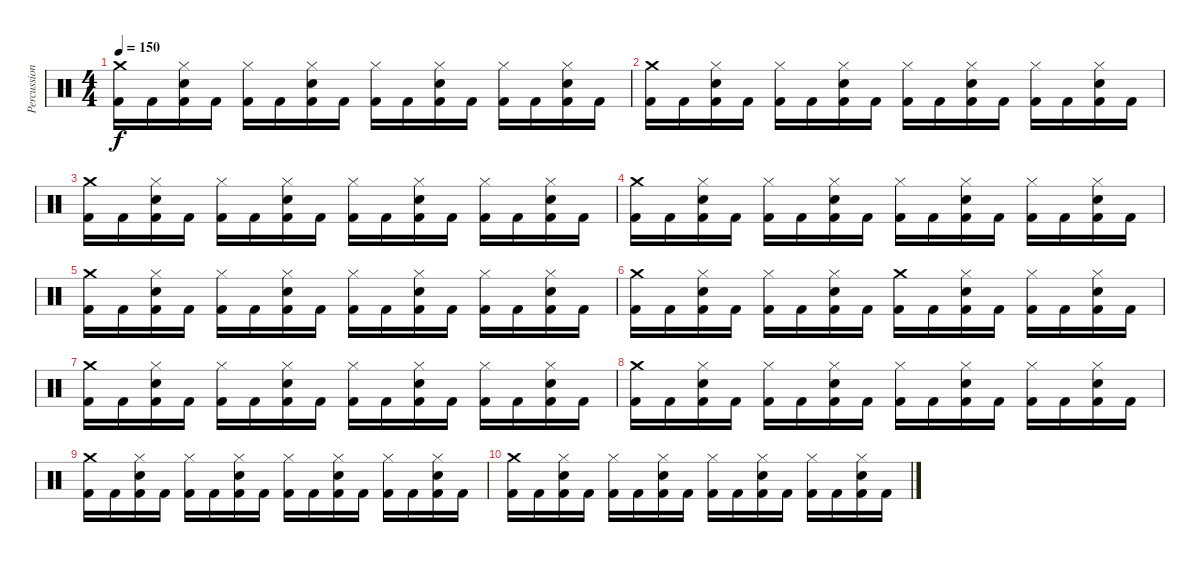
\track ("Percussioni" "Percussion") {instrument percussion}
\staff {score}
\articulation defaults
\ts (4 4)
\tempo 150
\clef neutral
\ks c
("Crash medium (hit)" "Kick (hit) 2").16{dy f} "Kick (hit) 2".16 ("Hi-Hat (closed)" "Electric Snare (hit)" "Kick (hit) 2").16 "Kick (hit) 2".16 ("Hi-Hat (closed)" "Kick (hit) 2").16 "Kick (hit) 2".16 ("Hi-Hat (closed)" "Electric Snare (hit)" "Kick (hit) 2").16 "Kick (hit) 2".16 ("Hi-Hat (closed)" "Kick (hit) 2").16 "Kick (hit) 2".16 ("Hi-Hat (closed)" "Electric Snare (hit)" "Kick (hit) 2").16 "Kick (hit) 2".16 ("Hi-Hat (closed)" "Kick (hit) 2").16 "Kick (hit) 2".16 ("Hi-Hat (closed)" "Electric Snare (hit)" "Kick (hit) 2").16 "Kick (hit) 2".16 |
("Crash medium (hit)" "Kick (hit) 2").16 "Kick (hit) 2".16 ("Hi-Hat (closed)" "Electric Snare (hit)" "Kick (hit) 2").16 "Kick (hit) 2".16 ("Hi-Hat (closed)" "Kick (hit) 2").16 "Kick (hit) 2".16 ("Hi-Hat (closed)" "Electric Snare (hit)" "Kick (hit) 2").16 "Kick (hit) 2".16 ("Hi-Hat (closed)" "Kick (hit) 2").16 "Kick (hit) 2".16 ("Hi-Hat (closed)" "Electric Snare (hit)" "Kick (hit) 2").16 "Kick (hit) 2".16 ("Hi-Hat (closed)" "Kick (hit) 2").16 "Kick (hit) 2".16 ("Hi-Hat (closed)" "Electric Snare (hit)" "Kick (hit) 2").16 "Kick (hit) 2".16 |
("Crash medium (hit)" "Kick (hit) 2").16{volume 16} "Kick (hit) 2".16{volume 16} ("Hi-Hat (closed)" "Electric Snare (hit)" "Kick (hit) 2").16{volume 16} "Kick (hit) 2".16{volume 16} ("Hi-Hat (closed)" "Kick (hit) 2").16{volume 15} "Kick (hit) 2".16{volume 15} ("Hi-Hat (closed)" "Electric Snare (hit)" "Kick (hit) 2").16{volume 15} "Kick (hit) 2".16{volume 15} ("Hi-Hat (closed)" "Kick (hit) 2").16{volume 15} "Kick (hit) 2".16{volume 15} ("Hi-Hat (closed)" "Electric Snare (hit)" "Kick (hit) 2").16{volume 14} "Kick (hit) 2".16{volume 14} ("Hi-Hat (closed)" "Kick (hit) 2").16{volume 14} "Kick (hit) 2".16{volume 14} ("Hi-Hat (closed)" "Electric Snare (hit)" "Kick (hit) 2").16{volume 14} "Kick (hit) 2".16{volume 14} |
("Crash medium (hit)" "Kick (hit) 2").16{volume 14} "Kick (hit) 2".16{volume 14} ("Hi-Hat (closed)" "Electric Snare (hit)" "Kick (hit) 2").16{volume 13} "Kick (hit) 2".16{volume 13} ("Hi-Hat (closed)" "Kick (hit) 2").16{volume 13} "Kick (hit) 2".16{volume 13} ("Hi-Hat (closed)" "Electric Snare (hit)" "Kick (hit) 2").16{volume 13} "Kick (hit) 2".16{volume 13} ("Hi-Hat (closed)" "Kick (hit) 2").16{volume 12} "Kick (hit) 2".16{volume 12} ("Hi-Hat (closed)" "Electric Snare (hit)" "Kick (hit) 2").16{volume 12} "Kick (hit) 2".16{volume 12} ("Hi-Hat (closed)" "Kick (hit) 2").16{volume 12} "Kick (hit) 2".16{volume 12} ("Hi-Hat (closed)" "Electric Snare (hit)" "Kick (hit) 2").16{volume 12} "Kick (hit) 2".16{volume 12} |
("Crash medium (hit)" "Kick (hit) 2").16{volume 11} "Kick (hit) 2".16{volume 11} ("Hi-Hat (closed)" "Electric Snare (hit)" "Kick (hit) 2").16{volume 11} "Kick (hit) 2".16{volume 11} ("Hi-Hat (closed)" "Kick (hit) 2").16{volume 11} "Kick (hit) 2".16{volume 11} ("Hi-Hat (closed)" "Electric Snare (hit)" "Kick (hit) 2").16{volume 11} "Kick (hit) 2".16{volume 10} ("Hi-Hat (closed)" "Kick (hit) 2").16{volume 10} "Kick (hit) 2".16{volume 10} ("Hi-Hat (closed)" "Electric Snare (hit)" "Kick (hit) 2").16{volume 10} "Kick (hit) 2".16{volume 10} ("Hi-Hat (closed)" "Kick (hit) 2").16{volume 10} "Kick (hit) 2".16{volume 10} ("Hi-Hat (closed)" "Electric Snare (hit)" "Kick (hit) 2").16{volume 10} "Kick (hit) 2".16{volume 9} |
("Crash medium (hit)" "Kick (hit) 2").16{volume 9} "Kick (hit) 2".16{volume 9} ("Hi-Hat (closed)" "Electric Snare (hit)" "Kick (hit) 2").16{volume 9} "Kick (hit) 2".16{volume 9} ("Hi-Hat (closed)" "Kick (hit) 2").16{volume 9} "Kick (hit) 2".16{volume 8} ("Hi-Hat (closed)" "Electric Snare (hit)" "Kick (hit) 2").16{volume 8} "Kick (hit) 2".16{volume 8} ("Crash medium (hit)" "Kick (hit) 2").16{volume 8} "Kick (hit) 2".16{volume 8} ("Hi-Hat (closed)" "Electric Snare (hit)" "Kick (hit) 2").16{volume 8} "Kick (hit) 2".16{volume 8} ("Hi-Hat (closed)" "Kick (hit) 2").16{volume 8} "Kick (hit) 2".16{volume 7} ("Hi-Hat (closed)" "Electric Snare (hit)" "Kick (hit) 2").16{volume 7} "Kick (hit) 2".16{volume 7} |
("Crash medium (hit)" "Kick (hit) 2").16{volume 7} "Kick (hit) 2".16{volume 7} ("Hi-Hat (closed)" "Electric Snare (hit)" "Kick (hit) 2").16{volume 7} "Kick (hit) 2".16{volume 7} ("Hi-Hat (closed)" "Kick (hit) 2").16{volume 6} "Kick (hit) 2".16{volume 6} ("Hi-Hat (closed)" "Electric Snare (hit)" "Kick (hit) 2").16{volume 6} "Kick (hit) 2".16{volume 6} ("Hi-Hat (closed)" "Kick (hit) 2").16{volume 6} "Kick (hit) 2".16{volume 6} ("Hi-Hat (closed)" "Electric Snare (hit)" "Kick (hit) 2").16{volume 6} "Kick (hit) 2".16{volume 6} ("Hi-Hat (closed)" "Kick (hit) 2").16{volume 6} "Kick (hit) 2".16{volume 6} ("Hi-Hat (closed)" "Electric Snare (hit)" "Kick (hit) 2").16{volume 5} "Kick (hit) 2".16{volume 5} |
("Crash medium (hit)" "Kick (hit) 2").16{volume 5} "Kick (hit) 2".16{volume 5} ("Hi-Hat (closed)" "Electric Snare (hit)" "Kick (hit) 2").16{volume 5} "Kick (hit) 2".16{volume 5} ("Hi-Hat (closed)" "Kick (hit) 2").16{volume 5} "Kick (hit) 2".16{volume 5} ("Hi-Hat (closed)" "Electric Snare (hit)" "Kick (hit) 2").16{volume 4} "Kick (hit) 2".16{volume 4} ("Hi-Hat (closed)" "Kick (hit) 2").16{volume 4} "Kick (hit) 2".16{volume 4} ("Hi-Hat (closed)" "Electric Snare (hit)" "Kick (hit) 2").16{volume 4} "Kick (hit) 2".16{volume 4} ("Hi-Hat (closed)" "Kick (hit) 2").16{volume 4} "Kick (hit) 2".16{volume 4} ("Hi-Hat (closed)" "Electric Snare (hit)" "Kick (hit) 2").16{volume 4} "Kick (hit) 2".16{volume 4} |
("Crash medium (hit)" "Kick (hit) 2").16{volume 4} "Kick (hit) 2".16{volume 3} ("Hi-Hat (closed)" "Electric Snare (hit)" "Kick (hit) 2").16{volume 3} "Kick (hit) 2".16{volume 3} ("Hi-Hat (closed)" "Kick (hit) 2").16{volume 3} "Kick (hit) 2".16{volume 3} ("Hi-Hat (closed)" "Electric Snare (hit)" "Kick (hit) 2").16{volume 3} "Kick (hit) 2".16{volume 3} ("Hi-Hat (closed)" "Kick (hit) 2").16{volume 3} "Kick (hit) 2".16{volume 2} ("Hi-Hat (closed)" "Electric Snare (hit)" "Kick (hit) 2").16{volume 2} "Kick (hit) 2".16{volume 2} ("Hi-Hat (closed)" "Kick (hit) 2").16{volume 2} "Kick (hit) 2".16{volume 2} ("Hi-Hat (closed)" "Electric Snare (hit)" "Kick (hit) 2").16{volume 2} "Kick (hit) 2".16{volume 2} |
("Crash medium (hit)" "Kick (hit) 2").16{volume 2} "Kick (hit) 2".16{volume 2} ("Hi-Hat (closed)" "Electric Snare (hit)" "Kick (hit) 2").16{volume 2} "Kick (hit) 2".16{volume 1} ("Hi-Hat (closed)" "Kick (hit) 2").16{volume 1} "Kick (hit) 2".16{volume 1} ("Hi-Hat (closed)" "Electric Snare (hit)" "Kick (hit) 2").16{volume 1} "Kick (hit) 2".16{volume 1} ("Hi-Hat (closed)" "Kick (hit) 2").16{volume 1} "Kick (hit) 2".16{volume 1} ("Hi-Hat (closed)" "Electric Snare (hit)" "Kick (hit) 2").16{volume 1} "Kick (hit) 2".16{volume 0} ("Hi-Hat (closed)" "Kick (hit) 2").16{volume 0} "Kick (hit) 2".16{volume 0} ("Hi-Hat (closed)" "Electric Snare (hit)" "Kick (hit) 2").16{volume 0} "Kick (hit) 2".16{volume 0}
